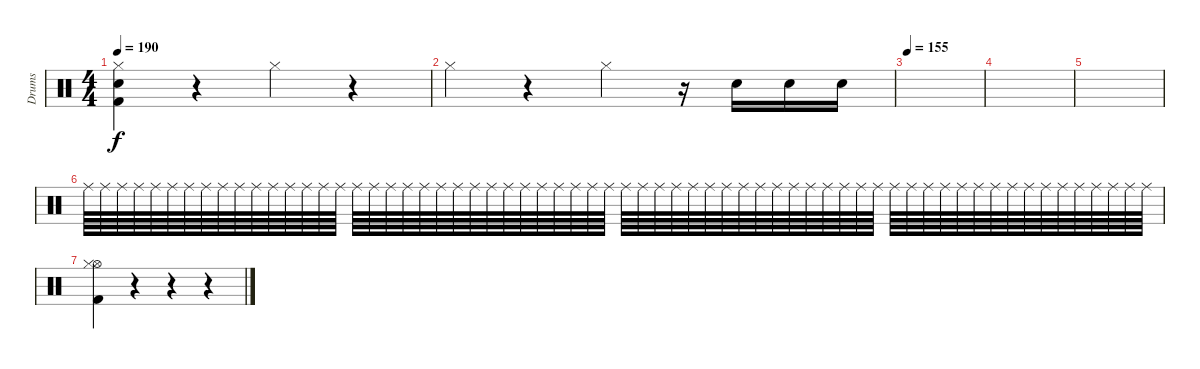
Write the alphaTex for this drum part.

\track ("Drums" "Drums") {instrument percussion}
\staff {score}
\articulation defaults
\ts (4 4)
\tempo 190
\clef neutral
\ks c
("Hi-Hat (closed)" "Snare (hit) 2" "Kick (hit) 2").4{dy f} r.4 "Hi-Hat (closed)".4 r.4 |
"Hi-Hat (closed)".4 r.4 "Hi-Hat (closed)".4 r.16 "Snare (hit) 2".16 "Snare (hit) 2".16 "Snare (hit) 2".16 |
\tempo 155
|
|
|
"Ride (middle)".64 "Ride (middle)".64 "Ride (middle)".64 "Ride (middle)".64 "Ride (middle)".64 "Ride (middle)".64 "Ride (middle)".64 "Ride (middle)".64 "Ride (middle)".64 "Ride (middle)".64 "Ride (middle)".64 "Ride (middle)".64 "Ride (middle)".64 "Ride (middle)".64 "Ride (middle)".64 "Ride (middle)".64 "Ride (middle)".64 "Ride (middle)".64 "Ride (middle)".64 "Ride (middle)".64 "Ride (middle)".64 "Ride (middle)".64 "Ride (middle)".64 "Ride (middle)".64 "Ride (middle)".64 "Ride (middle)".64 "Ride (middle)".64 "Ride (middle)".64 "Ride (middle)".64 "Ride (middle)".64 "Ride (middle)".64 "Ride (middle)".64 "Ride (middle)".64 "Ride (middle)".64 "Ride (middle)".64 "Ride (middle)".64 "Ride (middle)".64 "Ride (middle)".64 "Ride (middle)".64 "Ride (middle)".64 "Ride (middle)".64 "Ride (middle)".64 "Ride (middle)".64 "Ride (middle)".64 "Ride (middle)".64 "Ride (middle)".64 "Ride (middle)".64 "Ride (middle)".64 "Ride (middle)".64 "Ride (middle)".64 "Ride (middle)".64 "Ride (middle)".64 "Ride (middle)".64 "Ride (middle)".64 "Ride (middle)".64 "Ride (middle)".64 "Ride (middle)".64 "Ride (middle)".64 "Ride (middle)".64 "Ride (middle)".64 "Ride (middle)".64 "Ride (middle)".64 "Ride (middle)".64 "Ride (middle)".64 |
("Hi-Hat (open)" "Hi-Hat (closed)" "Kick (hit) 2").4 r.4 r.4 r.4
